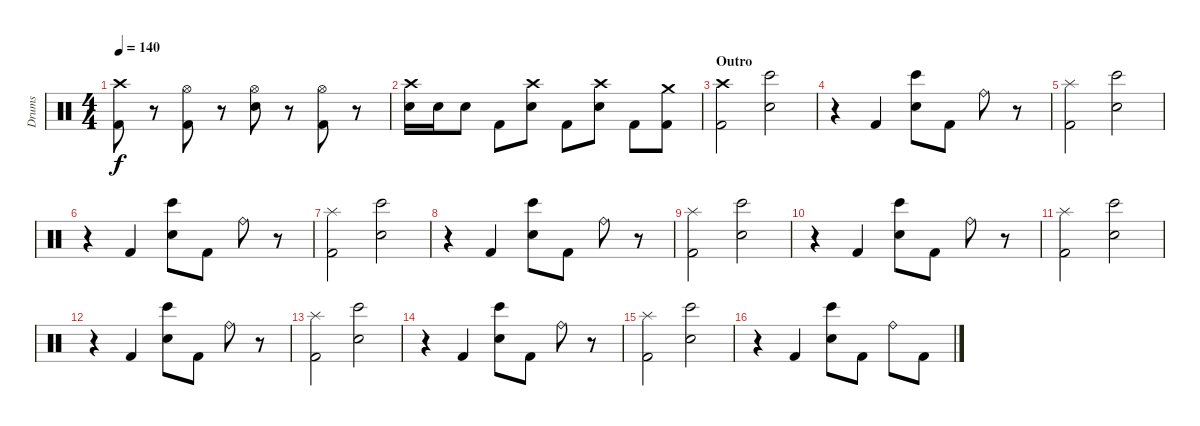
\track ("Drums" "Drums") {instrument percussion}
\staff {score}
\articulation defaults
\ts (4 4)
\tempo 140
\clef neutral
\ks c
("Crash high (hit)" "Kick (hit) 2").8{dy f} r.8 ("Hi-Hat (open)" "Kick (hit) 2").8 r.8 ("Hi-Hat (open)" "Snare (hit) 2").8 r.8 ("Hi-Hat (open)" "Kick (hit) 2").8 r.8 |
("Crash high (hit)" "Snare (hit) 2").16 "Snare (hit) 2".16 "Snare (hit) 2".8 "Kick (hit) 2".8 ("Crash high (hit)" "Snare (hit) 2").8 "Kick (hit) 2".8 ("Crash high (hit)" "Snare (hit) 2").8 "Kick (hit) 2".8 ("Crash medium (hit)" "Kick (hit) 2").8 |
\section ("" "Outro")
("Crash high (hit)" "Kick (hit) 2").2 ("Bongo High (hit)" "Snare (hit) 2").2 |
r.4 "Kick (hit) 2".4 ("Bongo High (hit)" "Snare (hit) 2").8 "Kick (hit) 2".8 "Ride (bell)".8 r.8 |
("Splash (hit)" "Kick (hit) 2").2 ("Bongo High (hit)" "Snare (hit) 2").2 |
r.4 "Kick (hit) 2".4 ("Bongo High (hit)" "Snare (hit) 2").8 "Kick (hit) 2".8 "Ride (bell)".8 r.8 |
("Splash (hit)" "Kick (hit) 2").2 ("Bongo High (hit)" "Snare (hit) 2").2 |
r.4 "Kick (hit) 2".4 ("Bongo High (hit)" "Snare (hit) 2").8 "Kick (hit) 2".8 "Ride (bell)".8 r.8 |
("Splash (hit)" "Kick (hit) 2").2 ("Bongo High (hit)" "Snare (hit) 2").2 |
r.4 "Kick (hit) 2".4 ("Bongo High (hit)" "Snare (hit) 2").8 "Kick (hit) 2".8 "Ride (bell)".8 r.8 |
("Splash (hit)" "Kick (hit) 2").2 ("Bongo High (hit)" "Snare (hit) 2").2 |
r.4 "Kick (hit) 2".4 ("Bongo High (hit)" "Snare (hit) 2").8 "Kick (hit) 2".8 "Ride (bell)".8 r.8 |
("Splash (hit)" "Kick (hit) 2").2 ("Bongo High (hit)" "Snare (hit) 2").2 |
r.4 "Kick (hit) 2".4 ("Bongo High (hit)" "Snare (hit) 2").8 "Kick (hit) 2".8 "Ride (bell)".8 r.8 |
("Splash (hit)" "Kick (hit) 2").2 ("Bongo High (hit)" "Snare (hit) 2").2 |
r.4 "Kick (hit) 2".4 ("Bongo High (hit)" "Snare (hit) 2").8 "Kick (hit) 2".8 "Ride (bell)".8 "Kick (hit) 2".8
